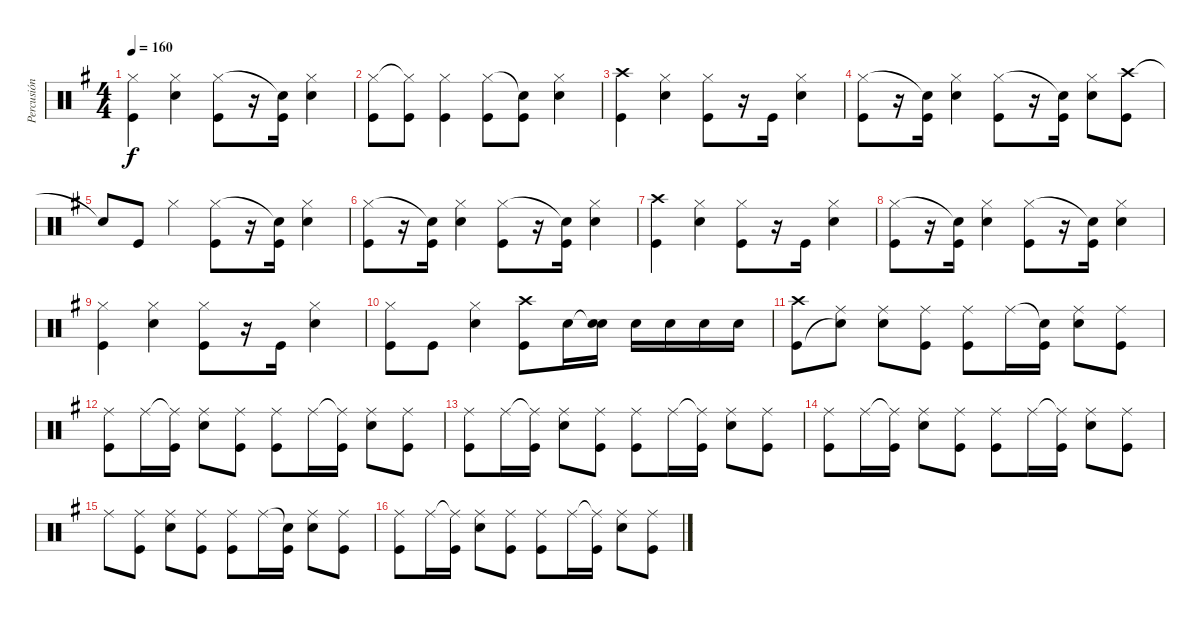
\track ("Percusión" "Percusión") {instrument percussion}
\staff {score}
\articulation defaults
\ts (4 4)
\tempo 160
\clef neutral
\ks g
("Hi-Hat (closed)" "Kick (hit)").4{dy f} ("Hi-Hat (closed)" "Snare (hit) 2").4 ("Hi-Hat (closed)" "Kick (hit)").8 r.16 ("Snare (hit)"{t} "Kick (hit)").16 ("Hi-Hat (closed)" "Snare (hit) 2").4 |
("Hi-Hat (closed)" "Kick (hit)").8 ("Hi-Hat (closed)"{t} "Kick (hit)").8 ("Hi-Hat (closed)" "Kick (hit)").4 ("Hi-Hat (closed)" "Kick (hit)").8 ("Snare (hit)"{t} "Kick (hit)").8 ("Hi-Hat (closed)" "Snare (hit) 2").4 |
("Crash high (hit)" "Kick (hit)").4 ("Hi-Hat (closed)" "Snare (hit) 2").4 ("Hi-Hat (closed)" "Kick (hit)").8 r.16 "Kick (hit)".16 ("Hi-Hat (closed)" "Snare (hit) 2").4 |
("Hi-Hat (closed)" "Kick (hit)").8 r.16 ("Snare (hit)"{t} "Kick (hit)").16 ("Hi-Hat (closed)" "Snare (hit) 2").4 ("Hi-Hat (closed)" "Kick (hit)").8 r.16 ("Snare (hit)"{t} "Kick (hit)").16 ("Hi-Hat (closed)" "Snare (hit) 2").8 ("Crash high (hit)" "Kick (hit)").8 |
"Snare (hit)"{t}.8 "Kick (hit)".8 "Hi-Hat (closed)".4 ("Hi-Hat (closed)" "Kick (hit)").8 r.16 ("Snare (hit)"{t} "Kick (hit)").16 ("Hi-Hat (closed)" "Snare (hit) 2").4 |
("Hi-Hat (closed)" "Kick (hit)").8 r.16 ("Snare (hit)"{t} "Kick (hit)").16 ("Hi-Hat (closed)" "Snare (hit) 2").4 ("Hi-Hat (closed)" "Kick (hit)").8 r.16 ("Snare (hit)"{t} "Kick (hit)").16 ("Hi-Hat (closed)" "Snare (hit) 2").4 |
("Crash high (hit)" "Kick (hit)").4 ("Hi-Hat (closed)" "Snare (hit) 2").4 ("Hi-Hat (closed)" "Kick (hit)").8 r.16 "Kick (hit)".16 ("Hi-Hat (closed)" "Snare (hit) 2").4 |
("Hi-Hat (closed)" "Kick (hit)").8 r.16 ("Snare (hit)"{t} "Kick (hit)").16 ("Hi-Hat (closed)" "Snare (hit) 2").4 ("Hi-Hat (closed)" "Kick (hit)").8 r.16 ("Snare (hit)"{t} "Kick (hit)").16 ("Hi-Hat (closed)" "Snare (hit) 2").4 |
("Hi-Hat (closed)" "Kick (hit)").4 ("Hi-Hat (closed)" "Snare (hit) 2").4 ("Hi-Hat (closed)" "Kick (hit)").8 r.16 "Kick (hit)".16 ("Hi-Hat (closed)" "Snare (hit)").4 |
("Hi-Hat (closed)" "Kick (hit)").8 "Kick (hit)".8 ("Hi-Hat (closed)" "Snare (hit) 2").4 ("Crash high (hit)" "Kick (hit)").8 "Snare (hit) 2".16 ("Snare (hit)"{t} "Snare (hit) 2").16 "Snare (hit) 2".16 "Snare (hit) 2".16 "Snare (hit) 2".16 "Snare (hit) 2".16 |
("Crash high (hit)" "Kick (hit)").8 ("Ride (middle)" "Snare (hit)"{t}).8 ("Ride (middle)" "Snare (hit) 2").8 ("Ride (middle)" "Kick (hit)").8 ("Ride (middle)" "Kick (hit)").8 "Ride (middle)".16 ("Snare (hit)"{t} "Kick (hit)").16 ("Ride (middle)" "Snare (hit) 2").8 ("Ride (middle)" "Kick (hit)").8 |
("Ride (middle)" "Kick (hit)").8 "Ride (middle)".16 ("Ride (middle)"{t} "Kick (hit)").16 ("Ride (middle)" "Snare (hit) 2").8 ("Ride (middle)" "Kick (hit)").8 ("Ride (middle)" "Kick (hit)").8 "Ride (middle)".16 ("Ride (middle)"{t} "Kick (hit)").16 ("Ride (middle)" "Snare (hit) 2").8 ("Ride (middle)" "Kick (hit)").8 |
("Ride (middle)" "Kick (hit)").8 "Ride (middle)".16 ("Ride (middle)"{t} "Kick (hit)").16 ("Ride (middle)" "Snare (hit) 2").8 ("Ride (middle)" "Kick (hit)").8 ("Ride (middle)" "Kick (hit)").8 "Ride (middle)".16 ("Ride (middle)"{t} "Kick (hit)").16 ("Ride (middle)" "Snare (hit) 2").8 ("Ride (middle)" "Kick (hit)").8 |
("Ride (middle)" "Kick (hit)").8 "Ride (middle)".16 ("Ride (middle)"{t} "Kick (hit)").16 ("Ride (middle)" "Snare (hit) 2").8 ("Ride (middle)" "Kick (hit)").8 ("Ride (middle)" "Kick (hit)").8 "Ride (middle)".16 ("Ride (middle)"{t} "Kick (hit)").16 ("Ride (middle)" "Snare (hit) 2").8 ("Ride (middle)" "Kick (hit)").8 |
"Ride (middle)".8 ("Ride (middle)" "Kick (hit)").8 ("Ride (middle)" "Snare (hit) 2").8 ("Ride (middle)" "Kick (hit)").8 ("Ride (middle)" "Kick (hit)").8 "Ride (middle)".16 ("Snare (hit)"{t} "Kick (hit)").16 ("Ride (middle)" "Snare (hit) 2").8 ("Ride (middle)" "Kick (hit)").8 |
("Ride (middle)" "Kick (hit)").8 "Ride (middle)".16 ("Ride (middle)"{t} "Kick (hit)").16 ("Ride (middle)" "Snare (hit) 2").8 ("Ride (middle)" "Kick (hit)").8 ("Ride (middle)" "Kick (hit)").8 "Ride (middle)".16 ("Ride (middle)"{t} "Kick (hit)").16 ("Ride (middle)" "Snare (hit) 2").8 ("Ride (middle)" "Kick (hit)").8
